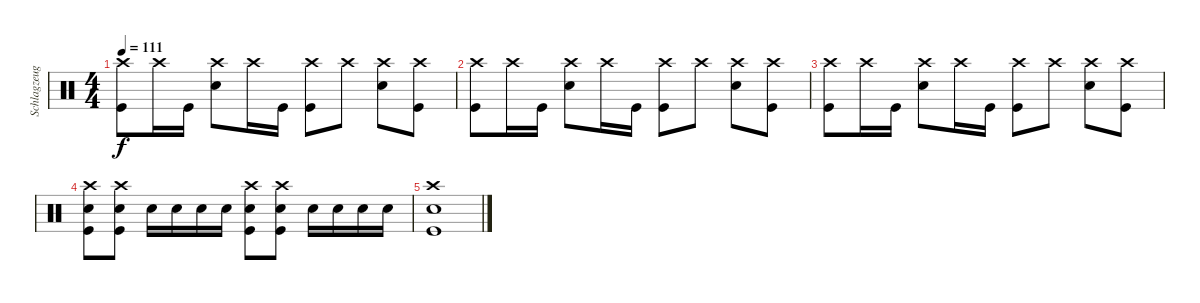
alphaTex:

\track ("Schlagzeug" "Schlagzeug") {solo instrument percussion}
\staff {score}
\articulation defaults
\ts (4 4)
\tempo 111
\clef neutral
\ks c
("Crash high (hit)" "Kick (hit)").8{dy f} "Crash high (hit)".16 "Kick (hit)".16 ("Crash high (hit)" "Snare (hit) 2").8 "Crash high (hit)".16 "Kick (hit)".16 ("Crash high (hit)" "Kick (hit)").8 "Crash high (hit)".8 ("Snare (hit) 2" "Crash high (hit)").8 ("Crash high (hit)" "Kick (hit)").8 |
("Crash high (hit)" "Kick (hit)").8 "Crash high (hit)".16 "Kick (hit)".16 ("Crash high (hit)" "Snare (hit) 2").8 "Crash high (hit)".16 "Kick (hit)".16 ("Crash high (hit)" "Kick (hit)").8 "Crash high (hit)".8 ("Snare (hit) 2" "Crash high (hit)").8 ("Crash high (hit)" "Kick (hit)").8 |
("Crash high (hit)" "Kick (hit)").8 "Crash high (hit)".16 "Kick (hit)".16 ("Crash high (hit)" "Snare (hit) 2").8 "Crash high (hit)".16 "Kick (hit)".16 ("Crash high (hit)" "Kick (hit)").8 "Crash high (hit)".8 ("Snare (hit) 2" "Crash high (hit)").8 ("Crash high (hit)" "Kick (hit)").8 |
("Snare (hit) 2" "Crash high (hit)" "Kick (hit)").8 ("Snare (hit) 2" "Crash high (hit)" "Kick (hit)").8 "Snare (hit) 2".16 "Snare (hit) 2".16 "Snare (hit) 2".16 "Snare (hit) 2".16 ("Snare (hit) 2" "Crash high (hit)" "Kick (hit)").8 ("Snare (hit) 2" "Crash high (hit)" "Kick (hit)").8 "Snare (hit) 2".16 "Snare (hit) 2".16 "Snare (hit) 2".16 "Snare (hit) 2".16 |
("Crash high (hit)" "Kick (hit)" "Snare (hit) 2").1
